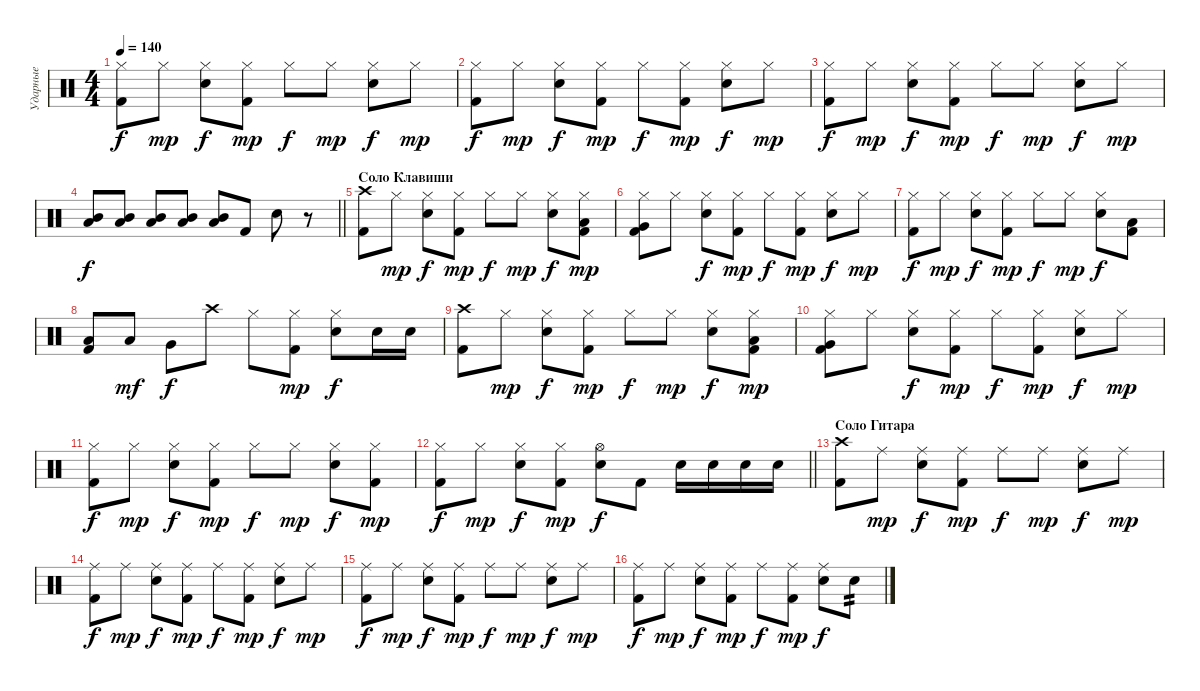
\track ("Ударные" "Ударные") {instrument percussion}
\staff {score}
\articulation defaults
\ts (4 4)
\tempo 140
\clef neutral
\ks c
("Hi-Hat (closed)" "Kick (hit) 2").8{dy f} "Hi-Hat (closed)".8{dy mp} ("Hi-Hat (closed)" "Snare (hit) 2").8{dy f} ("Hi-Hat (closed)" "Kick (hit) 2").8{dy mp} "Hi-Hat (closed)".8{dy f} "Hi-Hat (closed)".8{dy mp} ("Hi-Hat (closed)" "Snare (hit) 2").8{dy f} "Hi-Hat (closed)".8{dy mp} |
("Hi-Hat (closed)" "Kick (hit) 2").8{dy f} "Hi-Hat (closed)".8{dy mp} ("Hi-Hat (closed)" "Snare (hit) 2").8{dy f} ("Hi-Hat (closed)" "Kick (hit) 2").8{dy mp} "Hi-Hat (closed)".8{dy f} ("Hi-Hat (closed)" "Kick (hit) 2").8{dy mp} ("Hi-Hat (closed)" "Snare (hit) 2").8{dy f} "Hi-Hat (closed)".8{dy mp} |
("Hi-Hat (closed)" "Kick (hit) 2").8{dy f} "Hi-Hat (closed)".8{dy mp} ("Hi-Hat (closed)" "Snare (hit) 2").8{dy f} ("Hi-Hat (closed)" "Kick (hit) 2").8{dy mp} "Hi-Hat (closed)".8{dy f} "Hi-Hat (closed)".8{dy mp} ("Hi-Hat (closed)" "Snare (hit) 2").8{dy f} "Hi-Hat (closed)".8{dy mp} |
\barLineRight lightlight
("Low Tom (hit)" "Mid Tom (hit)").8{dy f} ("Low Tom (hit)" "Mid Tom (hit)").8 ("Low Tom (hit)" "Mid Tom (hit)").8 ("Low Tom (hit)" "Mid Tom (hit)").8 ("Low Tom (hit)" "Mid Tom (hit)").8 "Kick (hit) 2".8 "Snare (hit) 2".8 r.8 |
\section ("" "Соло Клавиши")
("Crash high (hit)" "Kick (hit) 2").8 "Hi-Hat (closed)".8{dy mp} ("Hi-Hat (closed)" "Snare (hit) 2").8{dy f} ("Hi-Hat (closed)" "Kick (hit) 2").8{dy mp} "Hi-Hat (closed)".8{dy f} "Hi-Hat (closed)".8{dy mp} ("Hi-Hat (closed)" "Snare (hit) 2").8{dy f} ("Hi-Hat (closed)" "Low Tom (hit)" "Kick (hit) 2").8{dy mp} |
("Hi-Hat (closed)" "Very Low Tom (hit)" "Kick (hit) 2").8 "Hi-Hat (closed)".8 ("Hi-Hat (closed)" "Snare (hit) 2").8{dy f} ("Hi-Hat (closed)" "Kick (hit) 2").8{dy mp} "Hi-Hat (closed)".8{dy f} ("Hi-Hat (closed)" "Kick (hit) 2").8{dy mp} ("Hi-Hat (closed)" "Snare (hit) 2").8{dy f} "Hi-Hat (closed)".8{dy mp} |
("Hi-Hat (closed)" "Kick (hit) 2").8{dy f} "Hi-Hat (closed)".8{dy mp} ("Hi-Hat (closed)" "Snare (hit) 2").8{dy f} ("Hi-Hat (closed)" "Kick (hit) 2").8{dy mp} "Hi-Hat (closed)".8{dy f} "Hi-Hat (closed)".8{dy mp} ("Hi-Hat (closed)" "Snare (hit) 2").8{dy f} ("Low Tom (hit)" "Kick (hit) 2").8 |
("Low Tom (hit)" "Kick (hit) 2").8 "Low Tom (hit)".8{dy mf} "Very Low Tom (hit)".8{dy f} "Crash high (hit)".8 "Hi-Hat (closed)".8 ("Hi-Hat (closed)" "Kick (hit) 2").8{dy mp} ("Hi-Hat (closed)" "Snare (hit) 2").8{dy f} "Snare (hit) 2".16 "Snare (hit) 2".16 |
("Crash high (hit)" "Kick (hit) 2").8 "Hi-Hat (closed)".8{dy mp} ("Hi-Hat (closed)" "Snare (hit) 2").8{dy f} ("Hi-Hat (closed)" "Kick (hit) 2").8{dy mp} "Hi-Hat (closed)".8{dy f} "Hi-Hat (closed)".8{dy mp} ("Hi-Hat (closed)" "Snare (hit) 2").8{dy f} ("Hi-Hat (closed)" "Low Tom (hit)" "Kick (hit) 2").8{dy mp} |
("Hi-Hat (closed)" "Very Low Tom (hit)" "Kick (hit) 2").8 "Hi-Hat (closed)".8 ("Hi-Hat (closed)" "Snare (hit) 2").8{dy f} ("Hi-Hat (closed)" "Kick (hit) 2").8{dy mp} "Hi-Hat (closed)".8{dy f} ("Hi-Hat (closed)" "Kick (hit) 2").8{dy mp} ("Hi-Hat (closed)" "Snare (hit) 2").8{dy f} "Hi-Hat (closed)".8{dy mp} |
("Hi-Hat (closed)" "Kick (hit) 2").8{dy f} "Hi-Hat (closed)".8{dy mp} ("Hi-Hat (closed)" "Snare (hit) 2").8{dy f} ("Hi-Hat (closed)" "Kick (hit) 2").8{dy mp} "Hi-Hat (closed)".8{dy f} "Hi-Hat (closed)".8{dy mp} ("Hi-Hat (closed)" "Snare (hit) 2").8{dy f} ("Hi-Hat (closed)" "Kick (hit) 2").8{dy mp} |
\barLineRight lightlight
("Hi-Hat (closed)" "Kick (hit) 2").8{dy f} "Hi-Hat (closed)".8{dy mp} ("Hi-Hat (closed)" "Snare (hit) 2").8{dy f} ("Hi-Hat (closed)" "Kick (hit) 2").8{dy mp} ("Hi-Hat (open)" "Snare (hit) 2").8{dy f} "Kick (hit) 2".8 "Snare (hit) 2".16 "Snare (hit) 2".16 "Snare (hit) 2".16 "Snare (hit) 2".16 |
\section ("" "Соло Гитара")
("Crash high (hit)" "Kick (hit) 2").8 "Ride (middle)".8{dy mp} ("Ride (middle)" "Snare (hit) 2").8{dy f} ("Ride (middle)" "Kick (hit) 2").8{dy mp} "Ride (middle)".8{dy f} "Ride (middle)".8{dy mp} ("Ride (middle)" "Snare (hit) 2").8{dy f} "Ride (middle)".8{dy mp} |
("Ride (middle)" "Kick (hit) 2").8{dy f} "Ride (middle)".8{dy mp} ("Ride (middle)" "Snare (hit) 2").8{dy f} ("Ride (middle)" "Kick (hit) 2").8{dy mp} "Ride (middle)".8{dy f} ("Ride (middle)" "Kick (hit) 2").8{dy mp} ("Ride (middle)" "Snare (hit) 2").8{dy f} "Ride (middle)".8{dy mp} |
("Ride (middle)" "Kick (hit) 2").8{dy f} "Ride (middle)".8{dy mp} ("Ride (middle)" "Snare (hit) 2").8{dy f} ("Ride (middle)" "Kick (hit) 2").8{dy mp} "Ride (middle)".8{dy f} "Ride (middle)".8{dy mp} ("Ride (middle)" "Snare (hit) 2").8{dy f} "Ride (middle)".8{dy mp} |
("Ride (middle)" "Kick (hit) 2").8{dy f} "Ride (middle)".8{dy mp} ("Ride (middle)" "Snare (hit) 2").8{dy f} ("Ride (middle)" "Kick (hit) 2").8{dy mp} "Ride (middle)".8{dy f} ("Ride (middle)" "Kick (hit) 2").8{dy mp} ("Ride (middle)" "Snare (hit) 2").8{dy f} "Snare (hit) 2".8{tp 2}
